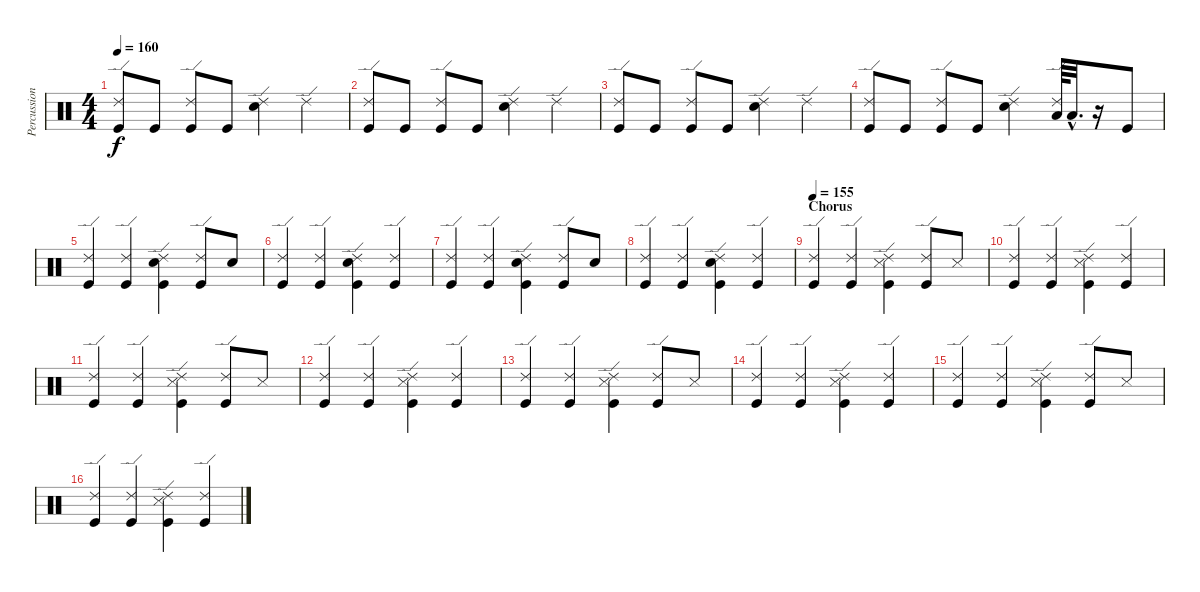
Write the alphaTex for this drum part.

\track ("Percussion" "Percussion") {instrument percussion}
\staff {score}
\articulation defaults
\ts (4 4)
\tempo 160
\clef neutral
\ks c
("Ride (edge) 2" "Kick (hit)").8{dy f} "Kick (hit)".8 ("Ride (edge) 2" "Kick (hit)").8 "Kick (hit)".8 ("Ride (edge) 2" "Snare (hit) 2").4 "Ride (edge) 2".4 |
("Ride (edge) 2" "Kick (hit)").8 "Kick (hit)".8 ("Ride (edge) 2" "Kick (hit)").8 "Kick (hit)".8 ("Ride (edge) 2" "Snare (hit) 2").4 "Ride (edge) 2".4 |
("Ride (edge) 2" "Kick (hit)").8 "Kick (hit)".8 ("Ride (edge) 2" "Kick (hit)").8 "Kick (hit)".8 ("Ride (edge) 2" "Snare (hit) 2").4 "Ride (edge) 2".4 |
("Ride (edge) 2" "Kick (hit)").8 "Kick (hit)".8 ("Ride (edge) 2" "Kick (hit)").8 "Kick (hit)".8 ("Ride (edge) 2" "Snare (hit) 2").4 ("Ride (edge) 2" "Low Floor Tom (hit)").64 "Low Floor Tom (hit)"{hac}.32{d} r.16 "Kick (hit)".8 |
("Ride (edge) 2" "Kick (hit)").4 ("Ride (edge) 2" "Kick (hit)").4 ("Ride (edge) 2" "Snare (hit) 2" "Kick (hit)").4 ("Ride (edge) 2" "Kick (hit)").8 "Snare (hit) 2".8 |
("Ride (edge) 2" "Kick (hit)").4 ("Ride (edge) 2" "Kick (hit)").4 ("Ride (edge) 2" "Snare (hit) 2" "Kick (hit)").4 ("Ride (edge) 2" "Kick (hit)").4 |
("Ride (edge) 2" "Kick (hit)").4 ("Ride (edge) 2" "Kick (hit)").4 ("Ride (edge) 2" "Snare (hit) 2" "Kick (hit)").4 ("Ride (edge) 2" "Kick (hit)").8 "Snare (hit) 2".8 |
("Ride (edge) 2" "Kick (hit)").4 ("Ride (edge) 2" "Kick (hit)").4 ("Ride (edge) 2" "Snare (hit) 2" "Kick (hit)").4 ("Ride (edge) 2" "Kick (hit)").4 |
\section ("" "Chorus")
\tempo 155
("Ride (edge) 2" "Kick (hit)").4 ("Ride (edge) 2" "Kick (hit)").4 ("Ride (edge) 2" "Snare (side stick) 3" "Kick (hit)").4 ("Ride (edge) 2" "Kick (hit)").8 "Snare (side stick) 3".8 |
("Ride (edge) 2" "Kick (hit)").4 ("Ride (edge) 2" "Kick (hit)").4 ("Ride (edge) 2" "Snare (side stick) 3" "Kick (hit)").4 ("Ride (edge) 2" "Kick (hit)").4 |
("Ride (edge) 2" "Kick (hit)").4 ("Ride (edge) 2" "Kick (hit)").4 ("Ride (edge) 2" "Snare (side stick) 3" "Kick (hit)").4 ("Ride (edge) 2" "Kick (hit)").8 "Snare (side stick) 3".8 |
("Ride (edge) 2" "Kick (hit)").4 ("Ride (edge) 2" "Kick (hit)").4 ("Ride (edge) 2" "Snare (side stick) 3" "Kick (hit)").4 ("Ride (edge) 2" "Kick (hit)").4 |
("Ride (edge) 2" "Kick (hit)").4 ("Ride (edge) 2" "Kick (hit)").4 ("Ride (edge) 2" "Snare (side stick) 3" "Kick (hit)").4 ("Ride (edge) 2" "Kick (hit)").8 "Snare (side stick) 3".8 |
("Ride (edge) 2" "Kick (hit)").4 ("Ride (edge) 2" "Kick (hit)").4 ("Ride (edge) 2" "Snare (side stick) 3" "Kick (hit)").4 ("Ride (edge) 2" "Kick (hit)").4 |
("Ride (edge) 2" "Kick (hit)").4 ("Ride (edge) 2" "Kick (hit)").4 ("Ride (edge) 2" "Snare (side stick) 3" "Kick (hit)").4 ("Ride (edge) 2" "Kick (hit)").8 "Snare (side stick) 3".8 |
("Ride (edge) 2" "Kick (hit)").4 ("Ride (edge) 2" "Kick (hit)").4 ("Ride (edge) 2" "Snare (side stick) 3" "Kick (hit)").4 ("Ride (edge) 2" "Kick (hit)").4
